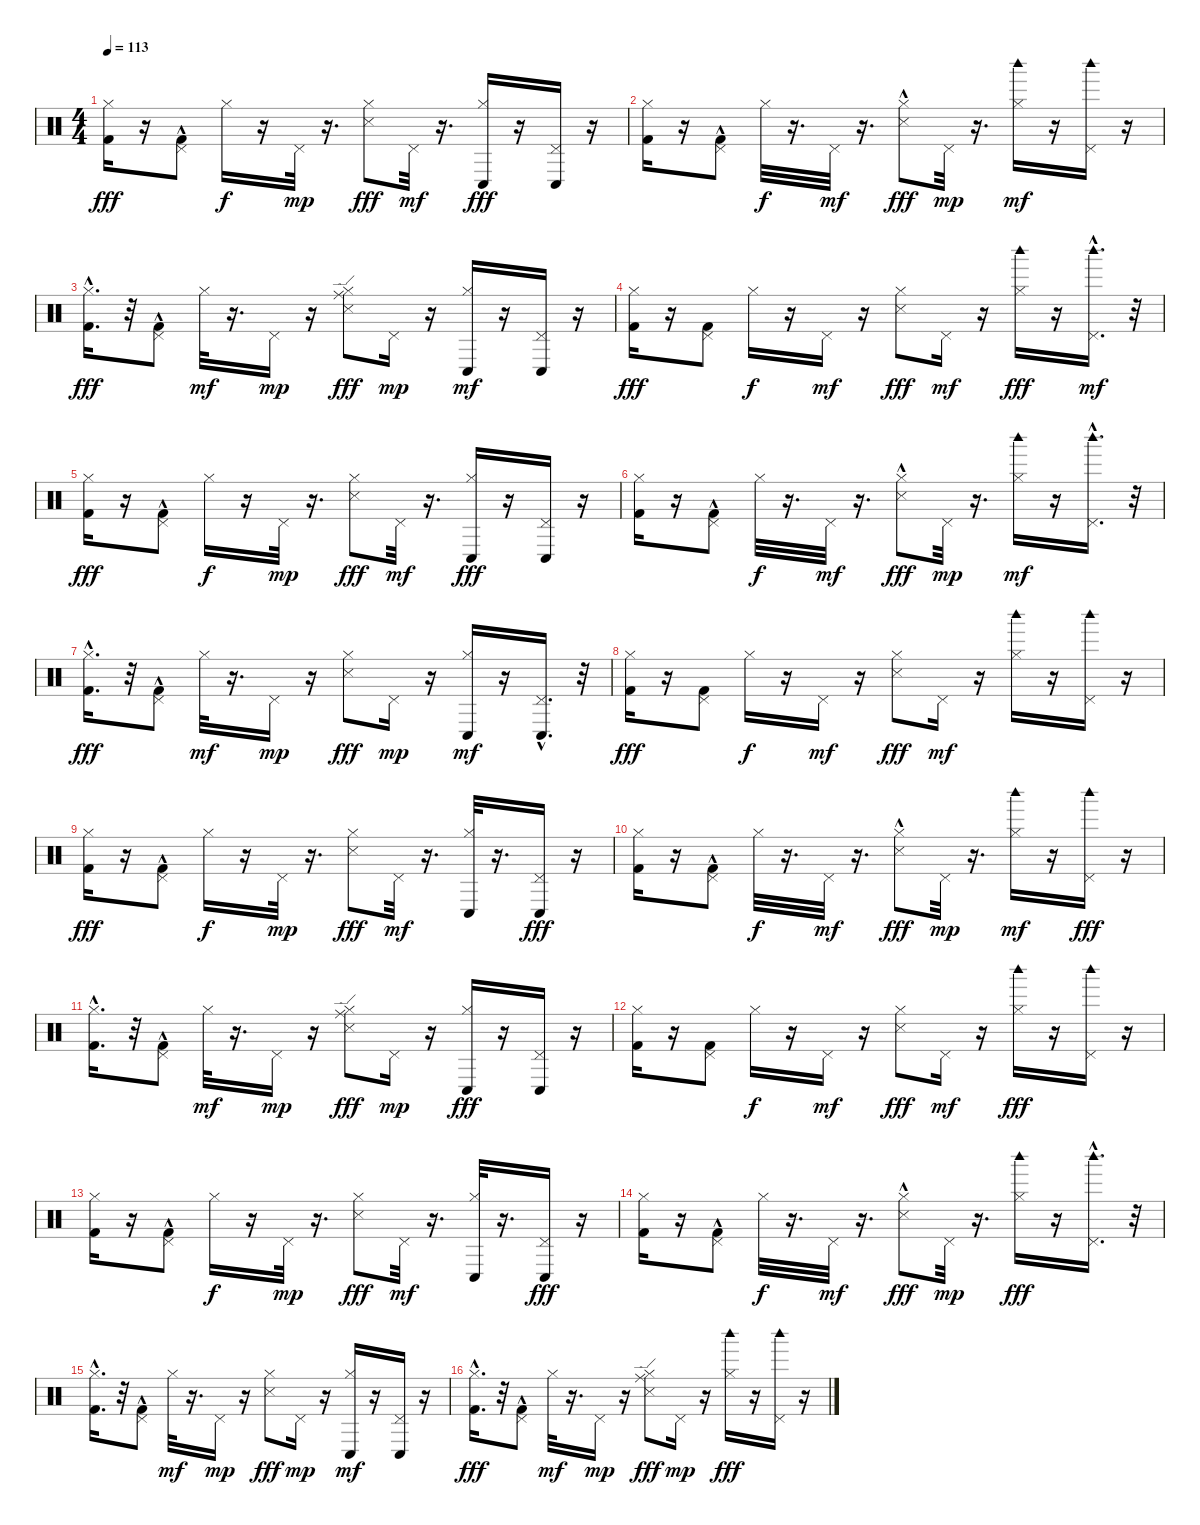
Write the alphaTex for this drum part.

\track "" {instrument percussion}
\staff {score}
\articulation defaults
\ts (4 4)
\tempo 113
\clef neutral
\ks c
("Hi-Hat (closed)" "Kick (hit) 2").16{dy fff} r.16 ("Pedal Hi-Hat (hit)" "Kick (hit) 2"{hac}).8 "Hi-Hat (closed)".16{dy f} r.16 "Pedal Hi-Hat (hit)".32{dy mp} r.16{d} ("Hi-Hat (closed)" "Snare (side stick) 3").8{dy fff} "Pedal Hi-Hat (hit)".32{dy mf} r.16{d} ("Hi-Hat (closed)" "Conga low (hit)").16{dy fff} r.16 ("Pedal Hi-Hat (hit)" "Conga low (hit)").16 r.16 |
("Hi-Hat (closed)" "Kick (hit) 2").16 r.16 ("Pedal Hi-Hat (hit)" "Kick (hit) 2"{hac}).8 "Hi-Hat (closed)".32{dy f} r.16{d} "Pedal Hi-Hat (hit)".32{dy mf} r.16{d} ("Hi-Hat (closed)" "Snare (side stick) 3"{hac}).8{dy fff} "Pedal Hi-Hat (hit)".32{dy mp} r.16{d} ("Woodblock high (hit)" "Hi-Hat (closed)").16{dy mf} r.16 ("Woodblock high (hit)" "Pedal Hi-Hat (hit)").16 r.16 |
("Hi-Hat (closed)" "Kick (hit) 2"{hac}).16{d dy fff} r.32 ("Pedal Hi-Hat (hit)" "Kick (hit) 2"{hac}).8 "Hi-Hat (closed)".32{dy mf} r.16{d} "Pedal Hi-Hat (hit)".16{dy mp} r.16 ("Ride (edge)" "Hi-Hat (closed)" "Snare (side stick) 3").8{dy fff} "Pedal Hi-Hat (hit)".16{dy mp} r.16 ("Conga low (hit)" "Hi-Hat (closed)").16{dy mf} r.16 ("Conga low (hit)" "Pedal Hi-Hat (hit)").16 r.16 |
("Hi-Hat (closed)" "Kick (hit) 2").16{dy fff} r.16 ("Pedal Hi-Hat (hit)" "Kick (hit) 2").8 "Hi-Hat (closed)".16{dy f} r.16 "Pedal Hi-Hat (hit)".16{dy mf} r.16 ("Hi-Hat (closed)" "Snare (side stick) 3").8{dy fff} "Pedal Hi-Hat (hit)".16{dy mf} r.16 ("Hi-Hat (closed)" "Woodblock high (hit)").16{dy fff} r.16 ("Woodblock high (hit)"{hac} "Pedal Hi-Hat (hit)").16{d dy mf} r.32 |
("Hi-Hat (closed)" "Kick (hit) 2").16{dy fff} r.16 ("Pedal Hi-Hat (hit)" "Kick (hit) 2"{hac}).8 "Hi-Hat (closed)".16{dy f} r.16 "Pedal Hi-Hat (hit)".32{dy mp} r.16{d} ("Hi-Hat (closed)" "Snare (side stick) 3").8{dy fff} "Pedal Hi-Hat (hit)".32{dy mf} r.16{d} ("Hi-Hat (closed)" "Conga low (hit)").16{dy fff} r.16 ("Pedal Hi-Hat (hit)" "Conga low (hit)").16 r.16 |
("Hi-Hat (closed)" "Kick (hit) 2").16 r.16 ("Pedal Hi-Hat (hit)" "Kick (hit) 2"{hac}).8 "Hi-Hat (closed)".32{dy f} r.16{d} "Pedal Hi-Hat (hit)".32{dy mf} r.16{d} ("Hi-Hat (closed)" "Snare (side stick) 3"{hac}).8{dy fff} "Pedal Hi-Hat (hit)".32{dy mp} r.16{d} ("Woodblock high (hit)" "Hi-Hat (closed)").16{dy mf} r.16 ("Woodblock high (hit)"{hac} "Pedal Hi-Hat (hit)").16{d} r.32 |
("Hi-Hat (closed)" "Kick (hit) 2"{hac}).16{d dy fff} r.32 ("Pedal Hi-Hat (hit)" "Kick (hit) 2"{hac}).8 "Hi-Hat (closed)".32{dy mf} r.16{d} "Pedal Hi-Hat (hit)".16{dy mp} r.16 ("Hi-Hat (closed)" "Snare (side stick) 3").8{dy fff} "Pedal Hi-Hat (hit)".16{dy mp} r.16 ("Conga low (hit)" "Hi-Hat (closed)").16{dy mf} r.16 ("Conga low (hit)"{hac} "Pedal Hi-Hat (hit)").16{d} r.32 |
("Hi-Hat (closed)" "Kick (hit) 2").16{dy fff} r.16 ("Pedal Hi-Hat (hit)" "Kick (hit) 2").8 "Hi-Hat (closed)".16{dy f} r.16 "Pedal Hi-Hat (hit)".16{dy mf} r.16 ("Hi-Hat (closed)" "Snare (side stick) 3").8{dy fff} "Pedal Hi-Hat (hit)".16{dy mf} r.16 ("Woodblock high (hit)" "Hi-Hat (closed)").16 r.16 ("Woodblock high (hit)" "Pedal Hi-Hat (hit)").16 r.16 |
("Hi-Hat (closed)" "Kick (hit) 2").16{dy fff} r.16 ("Pedal Hi-Hat (hit)" "Kick (hit) 2"{hac}).8 "Hi-Hat (closed)".16{dy f} r.16 "Pedal Hi-Hat (hit)".32{dy mp} r.16{d} ("Hi-Hat (closed)" "Snare (side stick) 3").8{dy fff} "Pedal Hi-Hat (hit)".32{dy mf} r.16{d} ("Conga low (hit)" "Hi-Hat (closed)").32 r.16{d} ("Pedal Hi-Hat (hit)" "Conga low (hit)").16{dy fff} r.16 |
("Hi-Hat (closed)" "Kick (hit) 2").16 r.16 ("Pedal Hi-Hat (hit)" "Kick (hit) 2"{hac}).8 "Hi-Hat (closed)".32{dy f} r.16{d} "Pedal Hi-Hat (hit)".32{dy mf} r.16{d} ("Hi-Hat (closed)" "Snare (side stick) 3"{hac}).8{dy fff} "Pedal Hi-Hat (hit)".32{dy mp} r.16{d} ("Woodblock high (hit)" "Hi-Hat (closed)").16{dy mf} r.16 ("Pedal Hi-Hat (hit)" "Woodblock high (hit)").16{dy fff} r.16 |
("Hi-Hat (closed)" "Kick (hit) 2"{hac}).16{d} r.32 ("Pedal Hi-Hat (hit)" "Kick (hit) 2"{hac}).8 "Hi-Hat (closed)".32{dy mf} r.16{d} "Pedal Hi-Hat (hit)".16{dy mp} r.16 ("Ride (edge)" "Hi-Hat (closed)" "Snare (side stick) 3").8{dy fff} "Pedal Hi-Hat (hit)".16{dy mp} r.16 ("Hi-Hat (closed)" "Conga low (hit)").16{dy fff} r.16 ("Pedal Hi-Hat (hit)" "Conga low (hit)").16 r.16 |
("Hi-Hat (closed)" "Kick (hit) 2").16 r.16 ("Pedal Hi-Hat (hit)" "Kick (hit) 2").8 "Hi-Hat (closed)".16{dy f} r.16 "Pedal Hi-Hat (hit)".16{dy mf} r.16 ("Hi-Hat (closed)" "Snare (side stick) 3").8{dy fff} "Pedal Hi-Hat (hit)".16{dy mf} r.16 ("Hi-Hat (closed)" "Woodblock high (hit)").16{dy fff} r.16 ("Pedal Hi-Hat (hit)" "Woodblock high (hit)").16 r.16 |
("Hi-Hat (closed)" "Kick (hit) 2").16 r.16 ("Pedal Hi-Hat (hit)" "Kick (hit) 2"{hac}).8 "Hi-Hat (closed)".16{dy f} r.16 "Pedal Hi-Hat (hit)".32{dy mp} r.16{d} ("Hi-Hat (closed)" "Snare (side stick) 3").8{dy fff} "Pedal Hi-Hat (hit)".32{dy mf} r.16{d} ("Conga low (hit)" "Hi-Hat (closed)").32 r.16{d} ("Pedal Hi-Hat (hit)" "Conga low (hit)").16{dy fff} r.16 |
("Hi-Hat (closed)" "Kick (hit) 2").16 r.16 ("Pedal Hi-Hat (hit)" "Kick (hit) 2"{hac}).8 "Hi-Hat (closed)".32{dy f} r.16{d} "Pedal Hi-Hat (hit)".32{dy mf} r.16{d} ("Hi-Hat (closed)" "Snare (side stick) 3"{hac}).8{dy fff} "Pedal Hi-Hat (hit)".32{dy mp} r.16{d} ("Hi-Hat (closed)" "Woodblock high (hit)").16{dy fff} r.16 ("Pedal Hi-Hat (hit)" "Woodblock high (hit)"{hac}).16{d} r.32 |
("Hi-Hat (closed)" "Kick (hit) 2"{hac}).16{d} r.32 ("Pedal Hi-Hat (hit)" "Kick (hit) 2"{hac}).8 "Hi-Hat (closed)".32{dy mf} r.16{d} "Pedal Hi-Hat (hit)".16{dy mp} r.16 ("Hi-Hat (closed)" "Snare (side stick) 3").8{dy fff} "Pedal Hi-Hat (hit)".16{dy mp} r.16 ("Conga low (hit)" "Hi-Hat (closed)").16{dy mf} r.16 ("Conga low (hit)" "Pedal Hi-Hat (hit)").16 r.16 |
("Hi-Hat (closed)" "Kick (hit) 2"{hac}).16{d dy fff} r.32 ("Pedal Hi-Hat (hit)" "Kick (hit) 2"{hac}).8 "Hi-Hat (closed)".32{dy mf} r.16{d} "Pedal Hi-Hat (hit)".16{dy mp} r.16 ("Ride (edge)" "Hi-Hat (closed)" "Snare (side stick) 3").8{dy fff} "Pedal Hi-Hat (hit)".16{dy mp} r.16 ("Hi-Hat (closed)" "Woodblock high (hit)").16{dy fff} r.16 ("Pedal Hi-Hat (hit)" "Woodblock high (hit)").16 r.16
